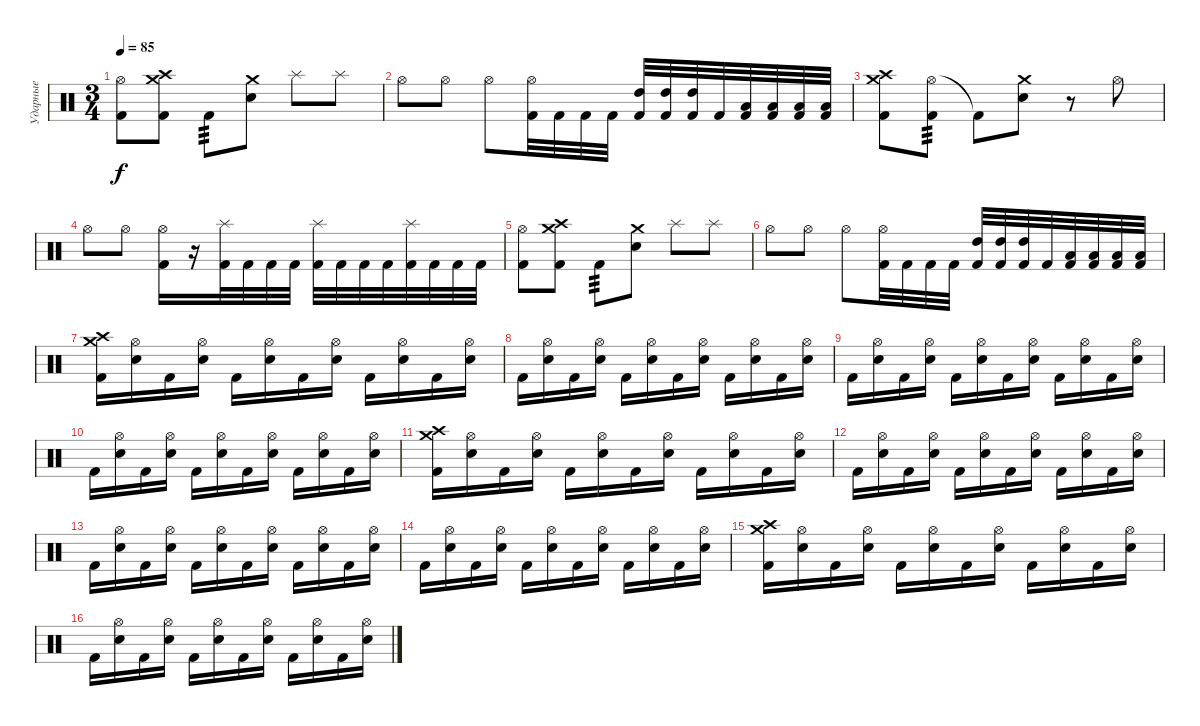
\track ("Ударные" "Ударные") {instrument percussion}
\staff {score}
\articulation defaults
\ts (3 4)
\tempo 85
\clef neutral
\ks c
("Hi-Hat (open)" "Kick (hit) 2").8{dy f} ("Crash medium (hit)" "Crash high (hit)" "Kick (hit) 2").8 "Kick (hit) 2".8{tp 3} ("Crash medium (hit)" "Electric Snare (hit)").8 "Splash (hit)".8 "Splash (hit)".8 |
"Hi-Hat (open)".8 "Hi-Hat (open)".8 "Hi-Hat (open)".8 ("Hi-Hat (open)" "Kick (hit) 2").32 "Kick (hit) 2".32 "Kick (hit) 2".32 "Kick (hit) 2".32 ("High Tom (hit)" "Kick (hit) 2").32 ("High Tom (hit)" "Kick (hit) 2").32 ("High Tom (hit)" "Kick (hit) 2").32 "Kick (hit) 2".32 ("Low Tom (hit)" "Kick (hit) 2").32 ("Low Tom (hit)" "Kick (hit) 2").32 ("Low Tom (hit)" "Kick (hit) 2").32 ("Low Tom (hit)" "Kick (hit) 2").32 |
("Crash high (hit)" "Crash medium (hit)" "Kick (hit) 2").8 ("Hi-Hat (open)" "Kick (hit) 2").8{tp 3} "Kick (hit) 2"{t}.8 ("Crash medium (hit)" "Electric Snare (hit)").8 r.8 "Hi-Hat (open)".8 |
"Hi-Hat (open)".8 "Hi-Hat (open)".8 ("Hi-Hat (open)" "Kick (hit) 2").16 r.16 ("Splash (hit)" "Kick (hit) 2").32 "Kick (hit) 2".32 "Kick (hit) 2".32 "Kick (hit) 2".32 ("Splash (hit)" "Kick (hit) 2").32 "Kick (hit) 2".32 "Kick (hit) 2".32 "Kick (hit) 2".32 ("Splash (hit)" "Kick (hit) 2").32 "Kick (hit) 2".32 "Kick (hit) 2".32 "Kick (hit) 2".32 |
("Hi-Hat (open)" "Kick (hit) 2").8 ("Crash medium (hit)" "Crash high (hit)" "Kick (hit) 2").8 "Kick (hit) 2".8{tp 3} ("Crash medium (hit)" "Electric Snare (hit)").8 "Splash (hit)".8 "Splash (hit)".8 |
"Hi-Hat (open)".8 "Hi-Hat (open)".8 "Hi-Hat (open)".8 ("Hi-Hat (open)" "Kick (hit) 2").32 "Kick (hit) 2".32 "Kick (hit) 2".32 "Kick (hit) 2".32 ("High Tom (hit)" "Kick (hit) 2").32 ("High Tom (hit)" "Kick (hit) 2").32 ("High Tom (hit)" "Kick (hit) 2").32 "Kick (hit) 2".32 ("Low Tom (hit)" "Kick (hit) 2").32 ("Low Tom (hit)" "Kick (hit) 2").32 ("Low Tom (hit)" "Kick (hit) 2").32 ("Low Tom (hit)" "Kick (hit) 2").32 |
("Crash high (hit)" "Crash medium (hit)" "Kick (hit) 2").16 ("Hi-Hat (open)" "Electric Snare (hit)").16 "Kick (hit) 2".16 ("Hi-Hat (open)" "Electric Snare (hit)").16 "Kick (hit) 2".16 ("Hi-Hat (open)" "Electric Snare (hit)").16 "Kick (hit) 2".16 ("Hi-Hat (open)" "Electric Snare (hit)").16 "Kick (hit) 2".16 ("Hi-Hat (open)" "Electric Snare (hit)").16 "Kick (hit) 2".16 ("Hi-Hat (open)" "Electric Snare (hit)").16 |
"Kick (hit) 2".16 ("Hi-Hat (open)" "Electric Snare (hit)").16 "Kick (hit) 2".16 ("Hi-Hat (open)" "Electric Snare (hit)").16 "Kick (hit) 2".16 ("Hi-Hat (open)" "Electric Snare (hit)").16 "Kick (hit) 2".16 ("Hi-Hat (open)" "Electric Snare (hit)").16 "Kick (hit) 2".16 ("Hi-Hat (open)" "Electric Snare (hit)").16 "Kick (hit) 2".16 ("Hi-Hat (open)" "Electric Snare (hit)").16 |
"Kick (hit) 2".16 ("Hi-Hat (open)" "Electric Snare (hit)").16 "Kick (hit) 2".16 ("Hi-Hat (open)" "Electric Snare (hit)").16 "Kick (hit) 2".16 ("Hi-Hat (open)" "Electric Snare (hit)").16 "Kick (hit) 2".16 ("Hi-Hat (open)" "Electric Snare (hit)").16 "Kick (hit) 2".16 ("Hi-Hat (open)" "Electric Snare (hit)").16 "Kick (hit) 2".16 ("Hi-Hat (open)" "Electric Snare (hit)").16 |
"Kick (hit) 2".16 ("Hi-Hat (open)" "Electric Snare (hit)").16 "Kick (hit) 2".16 ("Hi-Hat (open)" "Electric Snare (hit)").16 "Kick (hit) 2".16 ("Hi-Hat (open)" "Electric Snare (hit)").16 "Kick (hit) 2".16 ("Hi-Hat (open)" "Electric Snare (hit)").16 "Kick (hit) 2".16 ("Hi-Hat (open)" "Electric Snare (hit)").16 "Kick (hit) 2".16 ("Hi-Hat (open)" "Electric Snare (hit)").16 |
("Crash high (hit)" "Crash medium (hit)" "Kick (hit) 2").16 ("Hi-Hat (open)" "Electric Snare (hit)").16 "Kick (hit) 2".16 ("Hi-Hat (open)" "Electric Snare (hit)").16 "Kick (hit) 2".16 ("Hi-Hat (open)" "Electric Snare (hit)").16 "Kick (hit) 2".16 ("Hi-Hat (open)" "Electric Snare (hit)").16 "Kick (hit) 2".16 ("Hi-Hat (open)" "Electric Snare (hit)").16 "Kick (hit) 2".16 ("Hi-Hat (open)" "Electric Snare (hit)").16 |
"Kick (hit) 2".16 ("Hi-Hat (open)" "Electric Snare (hit)").16 "Kick (hit) 2".16 ("Hi-Hat (open)" "Electric Snare (hit)").16 "Kick (hit) 2".16 ("Hi-Hat (open)" "Electric Snare (hit)").16 "Kick (hit) 2".16 ("Hi-Hat (open)" "Electric Snare (hit)").16 "Kick (hit) 2".16 ("Hi-Hat (open)" "Electric Snare (hit)").16 "Kick (hit) 2".16 ("Hi-Hat (open)" "Electric Snare (hit)").16 |
"Kick (hit) 2".16 ("Hi-Hat (open)" "Electric Snare (hit)").16 "Kick (hit) 2".16 ("Hi-Hat (open)" "Electric Snare (hit)").16 "Kick (hit) 2".16 ("Hi-Hat (open)" "Electric Snare (hit)").16 "Kick (hit) 2".16 ("Hi-Hat (open)" "Electric Snare (hit)").16 "Kick (hit) 2".16 ("Hi-Hat (open)" "Electric Snare (hit)").16 "Kick (hit) 2".16 ("Hi-Hat (open)" "Electric Snare (hit)").16 |
"Kick (hit) 2".16 ("Hi-Hat (open)" "Electric Snare (hit)").16 "Kick (hit) 2".16 ("Hi-Hat (open)" "Electric Snare (hit)").16 "Kick (hit) 2".16 ("Hi-Hat (open)" "Electric Snare (hit)").16 "Kick (hit) 2".16 ("Hi-Hat (open)" "Electric Snare (hit)").16 "Kick (hit) 2".16 ("Hi-Hat (open)" "Electric Snare (hit)").16 "Kick (hit) 2".16 ("Hi-Hat (open)" "Electric Snare (hit)").16 |
("Crash high (hit)" "Crash medium (hit)" "Kick (hit) 2").16 ("Hi-Hat (open)" "Electric Snare (hit)").16 "Kick (hit) 2".16 ("Hi-Hat (open)" "Electric Snare (hit)").16 "Kick (hit) 2".16 ("Hi-Hat (open)" "Electric Snare (hit)").16 "Kick (hit) 2".16 ("Hi-Hat (open)" "Electric Snare (hit)").16 "Kick (hit) 2".16 ("Hi-Hat (open)" "Electric Snare (hit)").16 "Kick (hit) 2".16 ("Hi-Hat (open)" "Electric Snare (hit)").16 |
"Kick (hit) 2".16 ("Hi-Hat (open)" "Electric Snare (hit)").16 "Kick (hit) 2".16 ("Hi-Hat (open)" "Electric Snare (hit)").16 "Kick (hit) 2".16 ("Hi-Hat (open)" "Electric Snare (hit)").16 "Kick (hit) 2".16 ("Hi-Hat (open)" "Electric Snare (hit)").16 "Kick (hit) 2".16 ("Hi-Hat (open)" "Electric Snare (hit)").16 "Kick (hit) 2".16 ("Hi-Hat (open)" "Electric Snare (hit)").16
